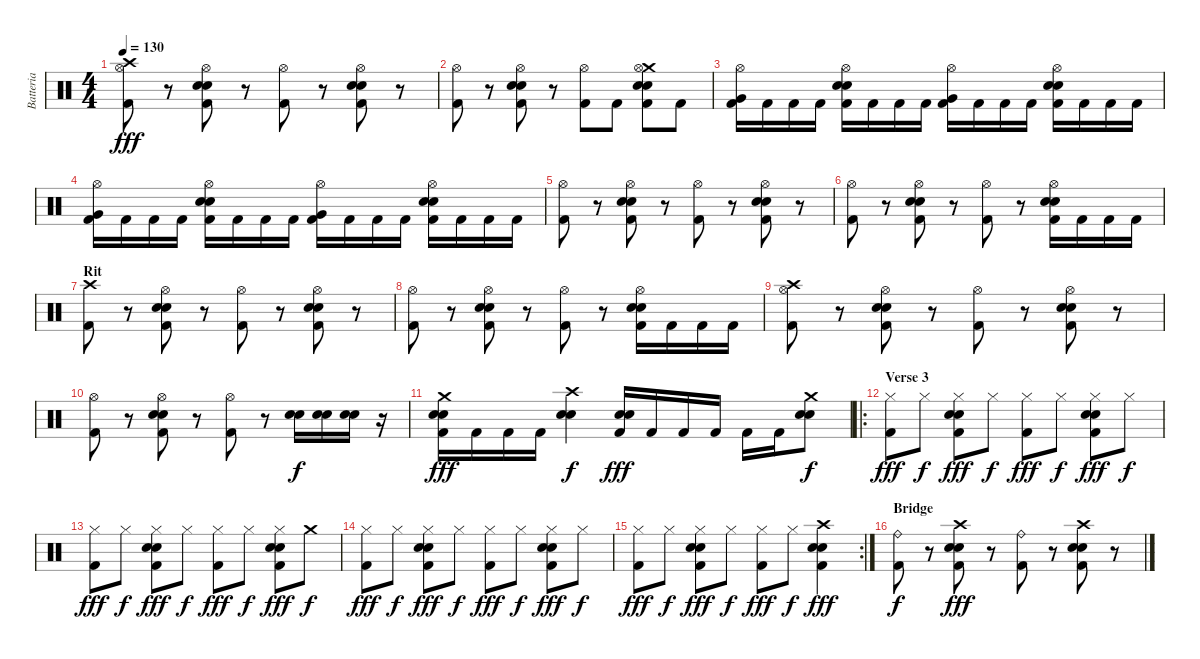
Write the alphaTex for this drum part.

\track ("Batteria" "Batteria") {instrument percussion}
\staff {score}
\articulation defaults
\ts (4 4)
\tempo 130
\clef neutral
\ks c
("Crash high (hit)" "Hi-Hat (open)" "Kick (hit) 2").8{dy fff} r.8 ("Hi-Hat (open)" "Electric Snare (hit)" "Snare (hit) 2" "Kick (hit) 2").8 r.8 ("Hi-Hat (open)" "Kick (hit) 2").8 r.8 ("Hi-Hat (open)" "Electric Snare (hit)" "Snare (hit) 2" "Kick (hit) 2").8 r.8 |
("Hi-Hat (open)" "Kick (hit) 2").8 r.8 ("Hi-Hat (open)" "Electric Snare (hit)" "Snare (hit) 2" "Kick (hit) 2").8 r.8 ("Hi-Hat (open)" "Kick (hit) 2").8 "Kick (hit) 2".8 ("Crash medium (hit)" "Hi-Hat (open)" "Electric Snare (hit)" "Snare (hit) 2" "Kick (hit) 2").8 "Kick (hit) 2".8 |
("Hi-Hat (open)" "Very Low Tom (hit)" "Kick (hit) 2").16 "Kick (hit) 2".16 "Kick (hit) 2".16 "Kick (hit) 2".16 ("Hi-Hat (open)" "Electric Snare (hit)" "Snare (hit) 2" "Kick (hit) 2").16 "Kick (hit) 2".16 "Kick (hit) 2".16 "Kick (hit) 2".16 ("Hi-Hat (open)" "Very Low Tom (hit)" "Kick (hit) 2").16 "Kick (hit) 2".16 "Kick (hit) 2".16 "Kick (hit) 2".16 ("Hi-Hat (open)" "Electric Snare (hit)" "Snare (hit) 2" "Kick (hit) 2").16 "Kick (hit) 2".16 "Kick (hit) 2".16 "Kick (hit) 2".16 |
("Hi-Hat (open)" "Very Low Tom (hit)" "Kick (hit) 2").16 "Kick (hit) 2".16 "Kick (hit) 2".16 "Kick (hit) 2".16 ("Hi-Hat (open)" "Electric Snare (hit)" "Snare (hit) 2" "Kick (hit) 2").16 "Kick (hit) 2".16 "Kick (hit) 2".16 "Kick (hit) 2".16 ("Hi-Hat (open)" "Very Low Tom (hit)" "Kick (hit) 2").16 "Kick (hit) 2".16 "Kick (hit) 2".16 "Kick (hit) 2".16 ("Hi-Hat (open)" "Electric Snare (hit)" "Snare (hit) 2" "Kick (hit) 2").16 "Kick (hit) 2".16 "Kick (hit) 2".16 "Kick (hit) 2".16 |
("Hi-Hat (open)" "Kick (hit) 2").8 r.8 ("Hi-Hat (open)" "Electric Snare (hit)" "Snare (hit) 2" "Kick (hit) 2").8 r.8 ("Hi-Hat (open)" "Kick (hit) 2").8 r.8 ("Hi-Hat (open)" "Electric Snare (hit)" "Snare (hit) 2" "Kick (hit) 2").8 r.8 |
("Hi-Hat (open)" "Kick (hit) 2").8 r.8 ("Hi-Hat (open)" "Electric Snare (hit)" "Snare (hit) 2" "Kick (hit) 2").8 r.8 ("Hi-Hat (open)" "Kick (hit) 2").8 r.8 ("Hi-Hat (open)" "Electric Snare (hit)" "Snare (hit) 2" "Kick (hit) 2").16 "Kick (hit) 2".16 "Kick (hit) 2".16 "Kick (hit) 2".16 |
\section ("" "Rit")
("Crash high (hit)" "Kick (hit) 2").8 r.8 ("Hi-Hat (open)" "Electric Snare (hit)" "Snare (hit) 2" "Kick (hit) 2").8 r.8 ("Hi-Hat (open)" "Kick (hit) 2").8 r.8 ("Hi-Hat (open)" "Electric Snare (hit)" "Snare (hit) 2" "Kick (hit) 2").8 r.8 |
("Hi-Hat (open)" "Kick (hit) 2").8 r.8 ("Hi-Hat (open)" "Electric Snare (hit)" "Snare (hit) 2" "Kick (hit) 2").8 r.8 ("Hi-Hat (open)" "Kick (hit) 2").8 r.8 ("Hi-Hat (open)" "Electric Snare (hit)" "Snare (hit) 2" "Kick (hit) 2").16 "Kick (hit) 2".16 "Kick (hit) 2".16 "Kick (hit) 2".16 |
("Crash high (hit)" "Hi-Hat (open)" "Kick (hit) 2").8 r.8 ("Hi-Hat (open)" "Electric Snare (hit)" "Snare (hit) 2" "Kick (hit) 2").8 r.8 ("Hi-Hat (open)" "Kick (hit) 2").8 r.8 ("Hi-Hat (open)" "Electric Snare (hit)" "Snare (hit) 2" "Kick (hit) 2").8 r.8 |
("Hi-Hat (open)" "Kick (hit) 2").8 r.8 ("Hi-Hat (open)" "Electric Snare (hit)" "Snare (hit) 2" "Kick (hit) 2").8 r.8 ("Hi-Hat (open)" "Kick (hit) 2").8 r.8 ("Electric Snare (hit)" "Snare (hit) 2").16{dy f} ("Electric Snare (hit)" "Snare (hit) 2").16 ("Electric Snare (hit)" "Snare (hit) 2").16 r.16 |
("Crash medium (hit)" "Electric Snare (hit)" "Snare (hit) 2" "Kick (hit) 2").16{dy fff} "Kick (hit) 2".16 "Kick (hit) 2".16 "Kick (hit) 2".16 ("Crash high (hit)" "Electric Snare (hit)" "Snare (hit) 2").4{dy f} ("Electric Snare (hit)" "Snare (hit) 2" "Kick (hit) 2").16{dy fff} "Kick (hit) 2".16 "Kick (hit) 2".16 "Kick (hit) 2".16 "Kick (hit) 2".16 "Kick (hit) 2".16 ("Crash medium (hit)" "Electric Snare (hit)" "Snare (hit) 2").8{dy f} |
\ro
\section ("" "Verse 3")
("Hi-Hat (closed)" "Kick (hit) 2").8{dy fff} "Hi-Hat (closed)".8{dy f} ("Hi-Hat (closed)" "Electric Snare (hit)" "Snare (hit) 2" "Kick (hit) 2").8{dy fff} "Hi-Hat (closed)".8{dy f} ("Hi-Hat (closed)" "Kick (hit) 2").8{dy fff} "Hi-Hat (closed)".8{dy f} ("Hi-Hat (closed)" "Electric Snare (hit)" "Snare (hit) 2" "Kick (hit) 2").8{dy fff} "Hi-Hat (closed)".8{dy f} |
("Hi-Hat (closed)" "Kick (hit) 2").8{dy fff} "Hi-Hat (closed)".8{dy f} ("Hi-Hat (closed)" "Electric Snare (hit)" "Snare (hit) 2" "Kick (hit) 2").8{dy fff} "Hi-Hat (closed)".8{dy f} ("Hi-Hat (closed)" "Kick (hit) 2").8{dy fff} "Hi-Hat (closed)".8{dy f} ("Hi-Hat (closed)" "Electric Snare (hit)" "Snare (hit) 2" "Kick (hit) 2").8{dy fff} "Crash medium (hit)".8{dy f} |
("Hi-Hat (closed)" "Kick (hit) 2").8{dy fff} "Hi-Hat (closed)".8{dy f} ("Hi-Hat (closed)" "Electric Snare (hit)" "Snare (hit) 2" "Kick (hit) 2").8{dy fff} "Hi-Hat (closed)".8{dy f} ("Hi-Hat (closed)" "Kick (hit) 2").8{dy fff} "Hi-Hat (closed)".8{dy f} ("Hi-Hat (closed)" "Electric Snare (hit)" "Snare (hit) 2" "Kick (hit) 2").8{dy fff} "Hi-Hat (closed)".8{dy f} |
\rc 2
("Hi-Hat (closed)" "Kick (hit) 2").8{dy fff} "Hi-Hat (closed)".8{dy f} ("Hi-Hat (closed)" "Electric Snare (hit)" "Snare (hit) 2" "Kick (hit) 2").8{dy fff} "Hi-Hat (closed)".8{dy f} ("Hi-Hat (closed)" "Kick (hit) 2").8{dy fff} "Hi-Hat (closed)".8{dy f} ("Crash high (hit)" "Electric Snare (hit)" "Snare (hit) 2" "Kick (hit) 2").4{dy fff} |
\section ("" "Bridge")
("Ride (bell)" "Kick (hit) 2").8{dy f} r.8 ("Crash high (hit)" "Electric Snare (hit)" "Snare (hit) 2" "Kick (hit) 2").8{dy fff} r.8 ("Ride (bell)" "Kick (hit) 2").8 r.8 ("Crash high (hit)" "Electric Snare (hit)" "Snare (hit) 2" "Kick (hit) 2").8 r.8
